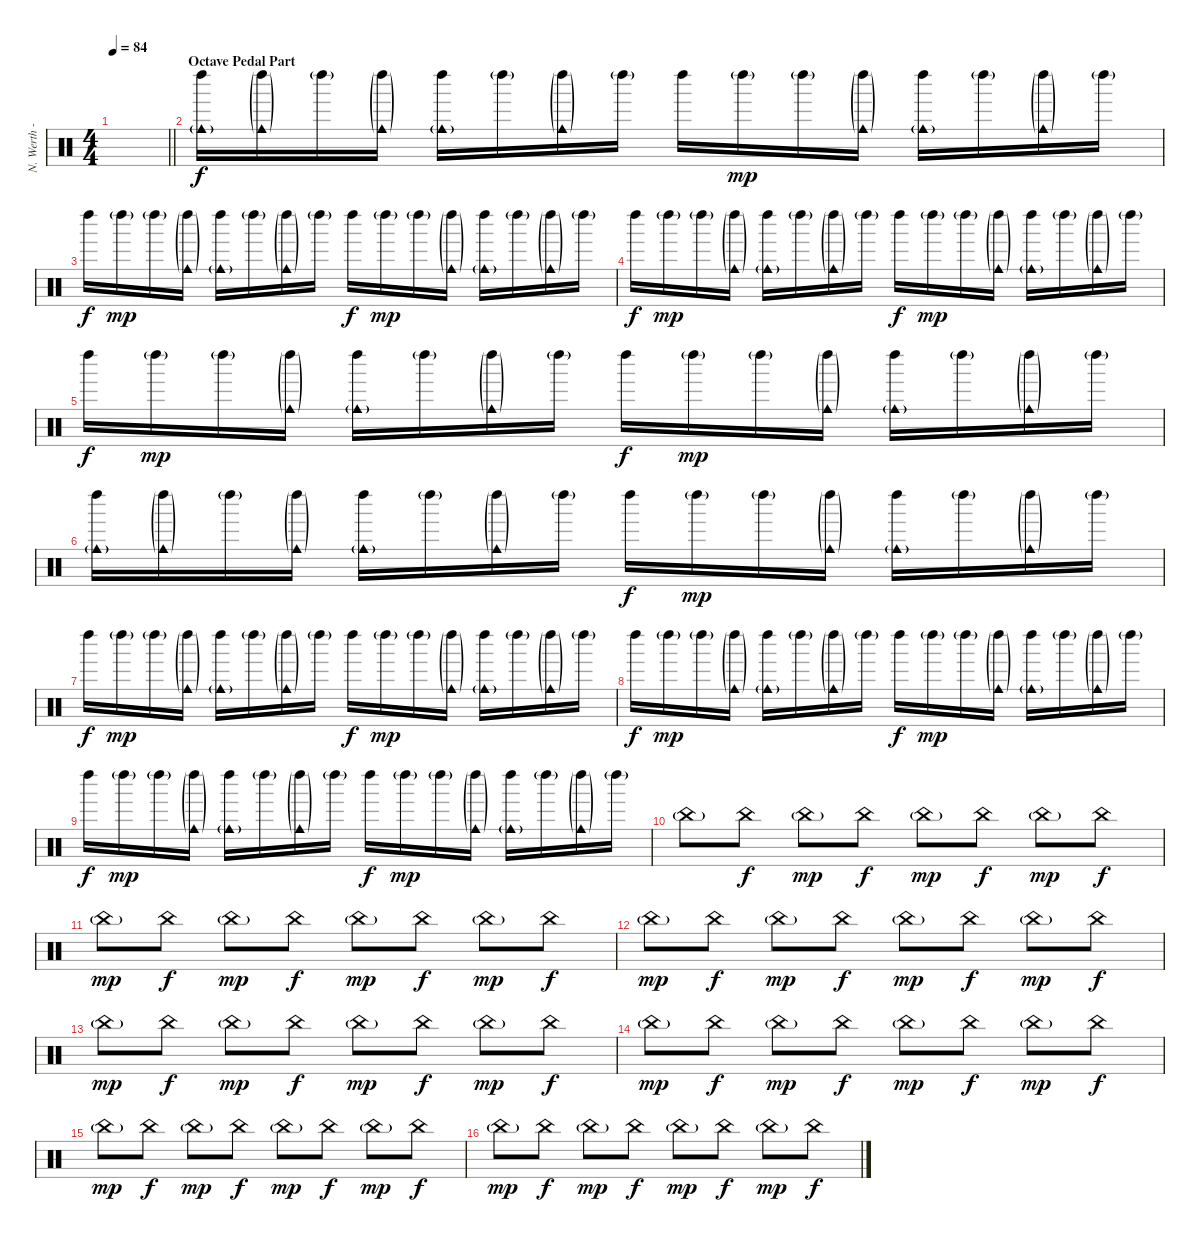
\track ("N. Werth - Percussion" "N. Werth -") {instrument percussion}
\staff {score}
\articulation defaults
\ts (4 4)
\tempo 84
\clef neutral
\barLineRight lightlight
\ks c
|
\section ("" "Octave Pedal Part")
("Left Maraca (hit)" "Cowbell medium (hit)"{g}).16 ("Left Maraca (hit)"{g} "Cowbell medium (hit)"{g}).16 "Left Maraca (hit)"{g}.16 ("Left Maraca (hit)"{g} "Cowbell medium (hit)"{g}).16 ("Left Maraca (hit)" "Cowbell medium (hit)"{g}).16 "Left Maraca (hit)"{g}.16 ("Left Maraca (hit)"{g} "Cowbell medium (hit)"{g}).16 "Left Maraca (hit)"{g}.16 "Left Maraca (hit)".16{dy f} "Left Maraca (hit)"{g}.16{dy mp} "Left Maraca (hit)"{g}.16 ("Left Maraca (hit)"{g} "Cowbell medium (hit)"{g}).16 ("Left Maraca (hit)" "Cowbell medium (hit)"{g}).16 "Left Maraca (hit)"{g}.16 ("Left Maraca (hit)"{g} "Cowbell medium (hit)"{g}).16 "Left Maraca (hit)"{g}.16 |
"Left Maraca (hit)".16{dy f} "Left Maraca (hit)"{g}.16{dy mp} "Left Maraca (hit)"{g}.16 ("Left Maraca (hit)"{g} "Cowbell medium (hit)"{g}).16 ("Left Maraca (hit)" "Cowbell medium (hit)"{g}).16 "Left Maraca (hit)"{g}.16 ("Left Maraca (hit)"{g} "Cowbell medium (hit)"{g}).16 "Left Maraca (hit)"{g}.16 "Left Maraca (hit)".16{dy f} "Left Maraca (hit)"{g}.16{dy mp} "Left Maraca (hit)"{g}.16 ("Left Maraca (hit)"{g} "Cowbell medium (hit)"{g}).16 ("Left Maraca (hit)" "Cowbell medium (hit)"{g}).16 "Left Maraca (hit)"{g}.16 ("Left Maraca (hit)"{g} "Cowbell medium (hit)"{g}).16 "Left Maraca (hit)"{g}.16 |
"Left Maraca (hit)".16{dy f} "Left Maraca (hit)"{g}.16{dy mp} "Left Maraca (hit)"{g}.16 ("Left Maraca (hit)"{g} "Cowbell medium (hit)"{g}).16 ("Left Maraca (hit)" "Cowbell medium (hit)"{g}).16 "Left Maraca (hit)"{g}.16 ("Left Maraca (hit)"{g} "Cowbell medium (hit)"{g}).16 "Left Maraca (hit)"{g}.16 "Left Maraca (hit)".16{dy f} "Left Maraca (hit)"{g}.16{dy mp} "Left Maraca (hit)"{g}.16 ("Left Maraca (hit)"{g} "Cowbell medium (hit)"{g}).16 ("Left Maraca (hit)" "Cowbell medium (hit)"{g}).16 "Left Maraca (hit)"{g}.16 ("Left Maraca (hit)"{g} "Cowbell medium (hit)"{g}).16 "Left Maraca (hit)"{g}.16 |
"Left Maraca (hit)".16{dy f} "Left Maraca (hit)"{g}.16{dy mp} "Left Maraca (hit)"{g}.16 ("Left Maraca (hit)"{g} "Cowbell medium (hit)"{g}).16 ("Left Maraca (hit)" "Cowbell medium (hit)"{g}).16 "Left Maraca (hit)"{g}.16 ("Left Maraca (hit)"{g} "Cowbell medium (hit)"{g}).16 "Left Maraca (hit)"{g}.16 "Left Maraca (hit)".16{dy f} "Left Maraca (hit)"{g}.16{dy mp} "Left Maraca (hit)"{g}.16 ("Left Maraca (hit)"{g} "Cowbell medium (hit)"{g}).16 ("Left Maraca (hit)" "Cowbell medium (hit)"{g}).16 "Left Maraca (hit)"{g}.16 ("Left Maraca (hit)"{g} "Cowbell medium (hit)"{g}).16 "Left Maraca (hit)"{g}.16 |
("Left Maraca (hit)" "Cowbell medium (hit)"{g}).16 ("Left Maraca (hit)"{g} "Cowbell medium (hit)"{g}).16 "Left Maraca (hit)"{g}.16 ("Left Maraca (hit)"{g} "Cowbell medium (hit)"{g}).16 ("Left Maraca (hit)" "Cowbell medium (hit)"{g}).16 "Left Maraca (hit)"{g}.16 ("Left Maraca (hit)"{g} "Cowbell medium (hit)"{g}).16 "Left Maraca (hit)"{g}.16 "Left Maraca (hit)".16{dy f} "Left Maraca (hit)"{g}.16{dy mp} "Left Maraca (hit)"{g}.16 ("Left Maraca (hit)"{g} "Cowbell medium (hit)"{g}).16 ("Left Maraca (hit)" "Cowbell medium (hit)"{g}).16 "Left Maraca (hit)"{g}.16 ("Left Maraca (hit)"{g} "Cowbell medium (hit)"{g}).16 "Left Maraca (hit)"{g}.16 |
"Left Maraca (hit)".16{dy f} "Left Maraca (hit)"{g}.16{dy mp} "Left Maraca (hit)"{g}.16 ("Left Maraca (hit)"{g} "Cowbell medium (hit)"{g}).16 ("Left Maraca (hit)" "Cowbell medium (hit)"{g}).16 "Left Maraca (hit)"{g}.16 ("Left Maraca (hit)"{g} "Cowbell medium (hit)"{g}).16 "Left Maraca (hit)"{g}.16 "Left Maraca (hit)".16{dy f} "Left Maraca (hit)"{g}.16{dy mp} "Left Maraca (hit)"{g}.16 ("Left Maraca (hit)"{g} "Cowbell medium (hit)"{g}).16 ("Left Maraca (hit)" "Cowbell medium (hit)"{g}).16 "Left Maraca (hit)"{g}.16 ("Left Maraca (hit)"{g} "Cowbell medium (hit)"{g}).16 "Left Maraca (hit)"{g}.16 |
"Left Maraca (hit)".16{dy f} "Left Maraca (hit)"{g}.16{dy mp} "Left Maraca (hit)"{g}.16 ("Left Maraca (hit)"{g} "Cowbell medium (hit)"{g}).16 ("Left Maraca (hit)" "Cowbell medium (hit)"{g}).16 "Left Maraca (hit)"{g}.16 ("Left Maraca (hit)"{g} "Cowbell medium (hit)"{g}).16 "Left Maraca (hit)"{g}.16 "Left Maraca (hit)".16{dy f} "Left Maraca (hit)"{g}.16{dy mp} "Left Maraca (hit)"{g}.16 ("Left Maraca (hit)"{g} "Cowbell medium (hit)"{g}).16 ("Left Maraca (hit)" "Cowbell medium (hit)"{g}).16 "Left Maraca (hit)"{g}.16 ("Left Maraca (hit)"{g} "Cowbell medium (hit)"{g}).16 "Left Maraca (hit)"{g}.16 |
"Left Maraca (hit)".16{dy f} "Left Maraca (hit)"{g}.16{dy mp} "Left Maraca (hit)"{g}.16 ("Left Maraca (hit)"{g} "Cowbell medium (hit)"{g}).16 ("Left Maraca (hit)" "Cowbell medium (hit)"{g}).16 "Left Maraca (hit)"{g}.16 ("Left Maraca (hit)"{g} "Cowbell medium (hit)"{g}).16 "Left Maraca (hit)"{g}.16 "Left Maraca (hit)".16{dy f} "Left Maraca (hit)"{g}.16{dy mp} "Left Maraca (hit)"{g}.16 ("Left Maraca (hit)"{g} "Cowbell medium (hit)"{g}).16 ("Left Maraca (hit)" "Cowbell medium (hit)"{g}).16 "Left Maraca (hit)"{g}.16 ("Left Maraca (hit)"{g} "Cowbell medium (hit)"{g}).16 "Left Maraca (hit)"{g}.16 |
"China (hit)"{g}.8 "China (hit)".8{dy f} "China (hit)"{g}.8{dy mp} "China (hit)".8{dy f} "China (hit)"{g}.8{dy mp} "China (hit)".8{dy f} "China (hit)"{g}.8{dy mp} "China (hit)".8{dy f} |
"China (hit)"{g}.8{dy mp} "China (hit)".8{dy f} "China (hit)"{g}.8{dy mp} "China (hit)".8{dy f} "China (hit)"{g}.8{dy mp} "China (hit)".8{dy f} "China (hit)"{g}.8{dy mp} "China (hit)".8{dy f} |
"China (hit)"{g}.8{dy mp} "China (hit)".8{dy f} "China (hit)"{g}.8{dy mp} "China (hit)".8{dy f} "China (hit)"{g}.8{dy mp} "China (hit)".8{dy f} "China (hit)"{g}.8{dy mp} "China (hit)".8{dy f} |
"China (hit)"{g}.8{dy mp} "China (hit)".8{dy f} "China (hit)"{g}.8{dy mp} "China (hit)".8{dy f} "China (hit)"{g}.8{dy mp} "China (hit)".8{dy f} "China (hit)"{g}.8{dy mp} "China (hit)".8{dy f} |
"China (hit)"{g}.8{dy mp} "China (hit)".8{dy f} "China (hit)"{g}.8{dy mp} "China (hit)".8{dy f} "China (hit)"{g}.8{dy mp} "China (hit)".8{dy f} "China (hit)"{g}.8{dy mp} "China (hit)".8{dy f} |
"China (hit)"{g}.8{dy mp} "China (hit)".8{dy f} "China (hit)"{g}.8{dy mp} "China (hit)".8{dy f} "China (hit)"{g}.8{dy mp} "China (hit)".8{dy f} "China (hit)"{g}.8{dy mp} "China (hit)".8{dy f} |
"China (hit)"{g}.8{dy mp} "China (hit)".8{dy f} "China (hit)"{g}.8{dy mp} "China (hit)".8{dy f} "China (hit)"{g}.8{dy mp} "China (hit)".8{dy f} "China (hit)"{g}.8{dy mp} "China (hit)".8{dy f}
